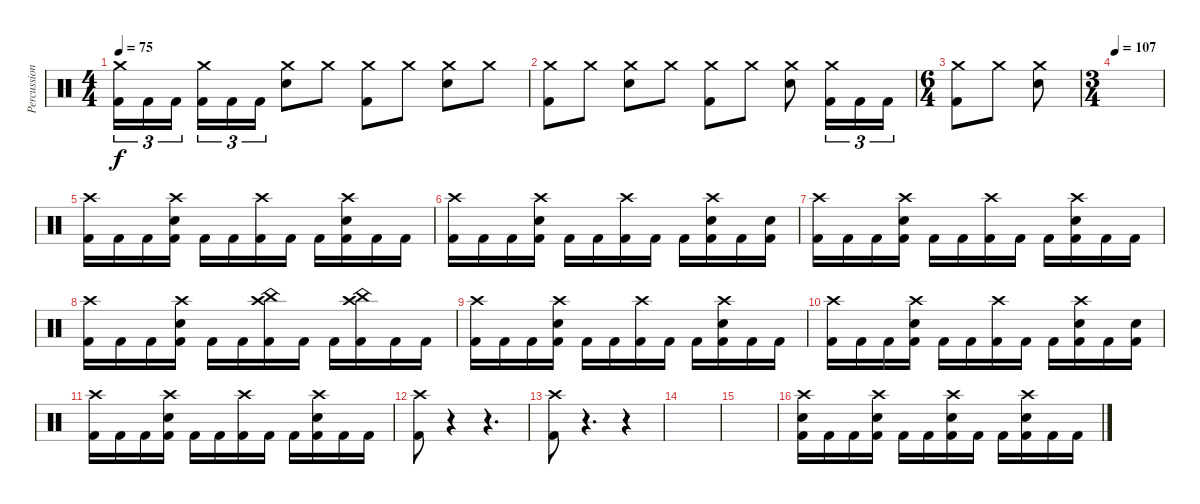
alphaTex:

\track ("Percussion" "Percussion") {instrument percussion}
\staff {score}
\articulation defaults
\ts (4 4)
\tempo 75
\clef neutral
\ks c
("Crash medium (hit)" "Kick (hit) 2").16{tu (3 2) dy f} "Kick (hit) 2".16{tu (3 2)} "Kick (hit) 2".16{tu (3 2) beam splitsecondary} ("Crash medium (hit)" "Kick (hit) 2").16{tu (3 2)} "Kick (hit) 2".16{tu (3 2)} "Kick (hit) 2".16{tu (3 2)} ("Crash medium (hit)" "Electric Snare (hit)").8 "Crash medium (hit)".8 ("Crash medium (hit)" "Kick (hit) 2").8 "Crash medium (hit)".8 ("Crash medium (hit)" "Electric Snare (hit)").8 "Crash medium (hit)".8 |
("Crash medium (hit)" "Kick (hit) 2").8 "Crash medium (hit)".8 ("Crash medium (hit)" "Electric Snare (hit)").8 "Crash medium (hit)".8 ("Crash medium (hit)" "Kick (hit) 2").8 "Crash medium (hit)".8 ("Crash medium (hit)" "Electric Snare (hit)").8 ("Crash medium (hit)" "Kick (hit) 2").16{tu (3 2)} "Kick (hit) 2".16{tu (3 2)} "Kick (hit) 2".16{tu (3 2)} |
\ts (6 4)
("Crash medium (hit)" "Kick (hit) 2").8 "Crash medium (hit)".8 ("Crash medium (hit)" "Electric Snare (hit)").8 |
\ts (3 4)
\tempo 107
|
("Crash high (hit)" "Kick (hit) 2").16 "Kick (hit) 2".16 "Kick (hit) 2".16 ("Crash high (hit)" "Electric Snare (hit)" "Kick (hit) 2").16 "Kick (hit) 2".16 "Kick (hit) 2".16 ("Crash high (hit)" "Kick (hit) 2").16 "Kick (hit) 2".16 "Kick (hit) 2".16 ("Crash high (hit)" "Electric Snare (hit)" "Kick (hit) 2").16 "Kick (hit) 2".16 "Kick (hit) 2".16 |
("Crash high (hit)" "Kick (hit) 2").16 "Kick (hit) 2".16 "Kick (hit) 2".16 ("Crash high (hit)" "Electric Snare (hit)" "Kick (hit) 2").16 "Kick (hit) 2".16 "Kick (hit) 2".16 ("Crash high (hit)" "Kick (hit) 2").16 "Kick (hit) 2".16 "Kick (hit) 2".16 ("Crash high (hit)" "Electric Snare (hit)" "Kick (hit) 2").16 "Kick (hit) 2".16 ("Electric Snare (hit)" "Kick (hit) 2").16 |
("Crash high (hit)" "Kick (hit) 2").16 "Kick (hit) 2".16 "Kick (hit) 2".16 ("Crash high (hit)" "Electric Snare (hit)" "Kick (hit) 2").16 "Kick (hit) 2".16 "Kick (hit) 2".16 ("Crash high (hit)" "Kick (hit) 2").16 "Kick (hit) 2".16 "Kick (hit) 2".16 ("Crash high (hit)" "Electric Snare (hit)" "Kick (hit) 2").16 "Kick (hit) 2".16 "Kick (hit) 2".16 |
("Crash high (hit)" "Kick (hit) 2").16 "Kick (hit) 2".16 "Kick (hit) 2".16 ("Crash high (hit)" "Electric Snare (hit)" "Kick (hit) 2").16 "Kick (hit) 2".16 "Kick (hit) 2".16 ("Crash high (hit)" "China (hit)" "Kick (hit) 2").16 "Kick (hit) 2".16 "Kick (hit) 2".16 ("Crash high (hit)" "China (hit)" "Kick (hit) 2").16 "Kick (hit) 2".16 "Kick (hit) 2".16 |
("Crash high (hit)" "Kick (hit) 2").16 "Kick (hit) 2".16 "Kick (hit) 2".16 ("Crash high (hit)" "Electric Snare (hit)" "Kick (hit) 2").16 "Kick (hit) 2".16 "Kick (hit) 2".16 ("Crash high (hit)" "Kick (hit) 2").16 "Kick (hit) 2".16 "Kick (hit) 2".16 ("Crash high (hit)" "Electric Snare (hit)" "Kick (hit) 2").16 "Kick (hit) 2".16 "Kick (hit) 2".16 |
("Crash high (hit)" "Kick (hit) 2").16 "Kick (hit) 2".16 "Kick (hit) 2".16 ("Crash high (hit)" "Electric Snare (hit)" "Kick (hit) 2").16 "Kick (hit) 2".16 "Kick (hit) 2".16 ("Crash high (hit)" "Kick (hit) 2").16 "Kick (hit) 2".16 "Kick (hit) 2".16 ("Crash high (hit)" "Electric Snare (hit)" "Kick (hit) 2").16 "Kick (hit) 2".16 ("Electric Snare (hit)" "Kick (hit) 2").16 |
("Crash high (hit)" "Kick (hit) 2").16 "Kick (hit) 2".16 "Kick (hit) 2".16 ("Crash high (hit)" "Electric Snare (hit)" "Kick (hit) 2").16 "Kick (hit) 2".16 "Kick (hit) 2".16 ("Crash high (hit)" "Kick (hit) 2").16 "Kick (hit) 2".16 "Kick (hit) 2".16 ("Crash high (hit)" "Electric Snare (hit)" "Kick (hit) 2").16 "Kick (hit) 2".16 "Kick (hit) 2".16 |
("Crash high (hit)" "Kick (hit) 2").8 r.4 r.4{d} |
("Crash high (hit)" "Kick (hit) 2").8 r.4{d} r.4 |
|
|
("Crash high (hit)" "Electric Snare (hit)" "Kick (hit) 2").16 "Kick (hit) 2".16 "Kick (hit) 2".16 ("Crash high (hit)" "Electric Snare (hit)" "Kick (hit) 2").16 "Kick (hit) 2".16 "Kick (hit) 2".16 ("Crash high (hit)" "Electric Snare (hit)" "Kick (hit) 2").16 "Kick (hit) 2".16 "Kick (hit) 2".16 ("Crash high (hit)" "Electric Snare (hit)" "Kick (hit) 2").16 "Kick (hit) 2".16 "Kick (hit) 2".16
